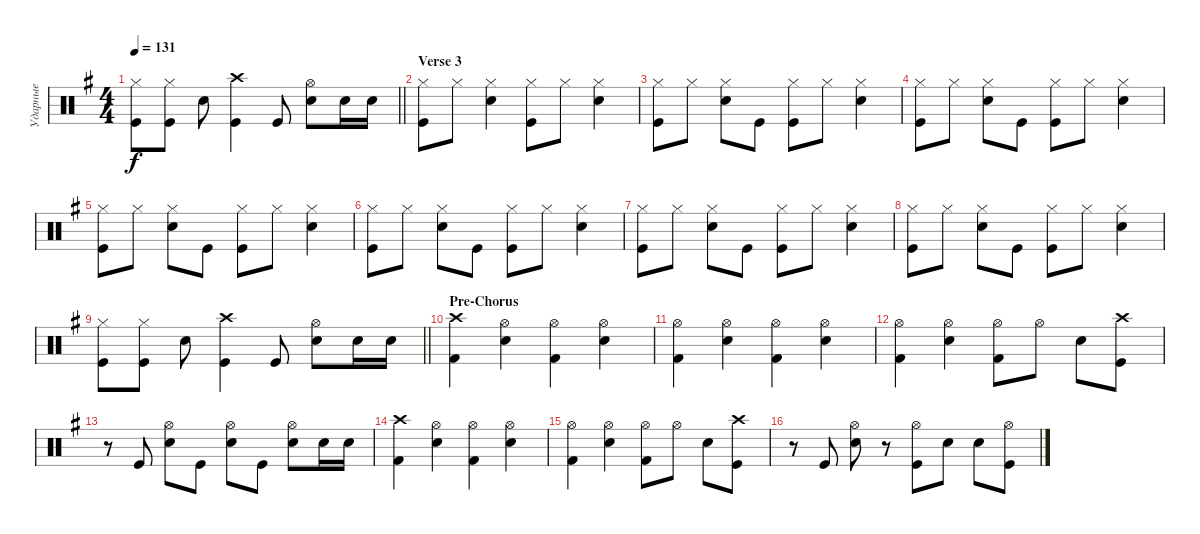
\track ("Ударные" "Ударные") {instrument percussion}
\staff {score}
\articulation defaults
\ts (4 4)
\tempo 131
\clef neutral
\barLineRight lightlight
\ks eminor
("Kick (hit)" "Hi-Hat (closed)").8{dy f} ("Kick (hit)" "Hi-Hat (closed)").8 "Snare (hit) 2".8 ("Crash high (hit)" "Kick (hit)").4 "Kick (hit)".8 ("Snare (hit) 2" "Hi-Hat (open)").8 "Snare (hit) 2".16 "Snare (hit) 2".16 |
\section ("" "Verse 3")
("Hi-Hat (closed)" "Kick (hit)").8 "Hi-Hat (closed)".8 ("Hi-Hat (closed)" "Snare (hit) 2").4 ("Hi-Hat (closed)" "Kick (hit)").8 "Hi-Hat (closed)".8 ("Hi-Hat (closed)" "Snare (hit) 2").4 |
("Hi-Hat (closed)" "Kick (hit)").8 "Hi-Hat (closed)".8 ("Hi-Hat (closed)" "Snare (hit) 2").8 "Kick (hit)".8 ("Hi-Hat (closed)" "Kick (hit)").8 "Hi-Hat (closed)".8 ("Snare (hit) 2" "Hi-Hat (closed)").4 |
("Hi-Hat (closed)" "Kick (hit)").8 "Hi-Hat (closed)".8 ("Hi-Hat (closed)" "Snare (hit) 2").8 "Kick (hit)".8 ("Hi-Hat (closed)" "Kick (hit)").8 "Hi-Hat (closed)".8 ("Hi-Hat (closed)" "Snare (hit) 2").4 |
("Hi-Hat (closed)" "Kick (hit)").8 "Hi-Hat (closed)".8 ("Hi-Hat (closed)" "Snare (hit) 2").8 "Kick (hit)".8 ("Hi-Hat (closed)" "Kick (hit)").8 "Hi-Hat (closed)".8 ("Hi-Hat (closed)" "Snare (hit) 2").4 |
("Hi-Hat (closed)" "Kick (hit)").8 "Hi-Hat (closed)".8 ("Hi-Hat (closed)" "Snare (hit) 2").8 "Kick (hit)".8 ("Hi-Hat (closed)" "Kick (hit)").8 "Hi-Hat (closed)".8 ("Hi-Hat (closed)" "Snare (hit) 2").4 |
("Hi-Hat (closed)" "Kick (hit)").8 "Hi-Hat (closed)".8 ("Hi-Hat (closed)" "Snare (hit) 2").8 "Kick (hit)".8 ("Hi-Hat (closed)" "Kick (hit)").8 "Hi-Hat (closed)".8 ("Hi-Hat (closed)" "Snare (hit) 2").4 |
("Hi-Hat (closed)" "Kick (hit)").8 "Hi-Hat (closed)".8 ("Hi-Hat (closed)" "Snare (hit) 2").8 "Kick (hit)".8 ("Hi-Hat (closed)" "Kick (hit)").8 "Hi-Hat (closed)".8 ("Hi-Hat (closed)" "Snare (hit) 2").4 |
\barLineRight lightlight
("Kick (hit)" "Hi-Hat (closed)").8 ("Kick (hit)" "Hi-Hat (closed)").8 "Snare (hit) 2".8 ("Crash high (hit)" "Kick (hit)").4 "Kick (hit)".8 ("Snare (hit) 2" "Hi-Hat (open)").8 "Snare (hit) 2".16 "Snare (hit) 2".16 |
\section ("" "Pre-Chorus")
("Crash high (hit)" "Kick (hit) 2").4 ("Hi-Hat (open)" "Snare (hit) 2").4 ("Hi-Hat (open)" "Kick (hit) 2").4 ("Hi-Hat (open)" "Snare (hit) 2").4 |
("Hi-Hat (open)" "Kick (hit) 2").4 ("Hi-Hat (open)" "Snare (hit) 2").4 ("Hi-Hat (open)" "Kick (hit) 2").4 ("Hi-Hat (open)" "Snare (hit) 2").4 |
("Hi-Hat (open)" "Kick (hit) 2").4 ("Hi-Hat (open)" "Snare (hit) 2").4 ("Hi-Hat (open)" "Kick (hit) 2").8 "Hi-Hat (open)".8 "Snare (hit) 2".8 ("Kick (hit)" "Crash high (hit)").8 |
r.8 "Kick (hit)".8 ("Hi-Hat (open)" "Snare (hit) 2").8 "Kick (hit)".8 ("Hi-Hat (open)" "Snare (hit) 2").8 "Kick (hit)".8 ("Hi-Hat (open)" "Snare (hit) 2").8 "Snare (hit) 2".16 "Snare (hit) 2".16 |
("Crash high (hit)" "Kick (hit) 2").4 ("Hi-Hat (open)" "Snare (hit) 2").4 ("Hi-Hat (open)" "Kick (hit) 2").4 ("Hi-Hat (open)" "Snare (hit) 2").4 |
("Hi-Hat (open)" "Kick (hit) 2").4 ("Hi-Hat (open)" "Snare (hit) 2").4 ("Hi-Hat (open)" "Kick (hit) 2").8 "Hi-Hat (open)".8 "Snare (hit) 2".8 ("Kick (hit)" "Crash high (hit)").8 |
r.8 "Kick (hit)".8 ("Snare (hit) 2" "Hi-Hat (open)").8 r.8 ("Kick (hit)" "Hi-Hat (open)").8 "Snare (hit) 2".8 "Snare (hit) 2".8 ("Kick (hit)" "Hi-Hat (open)").8
